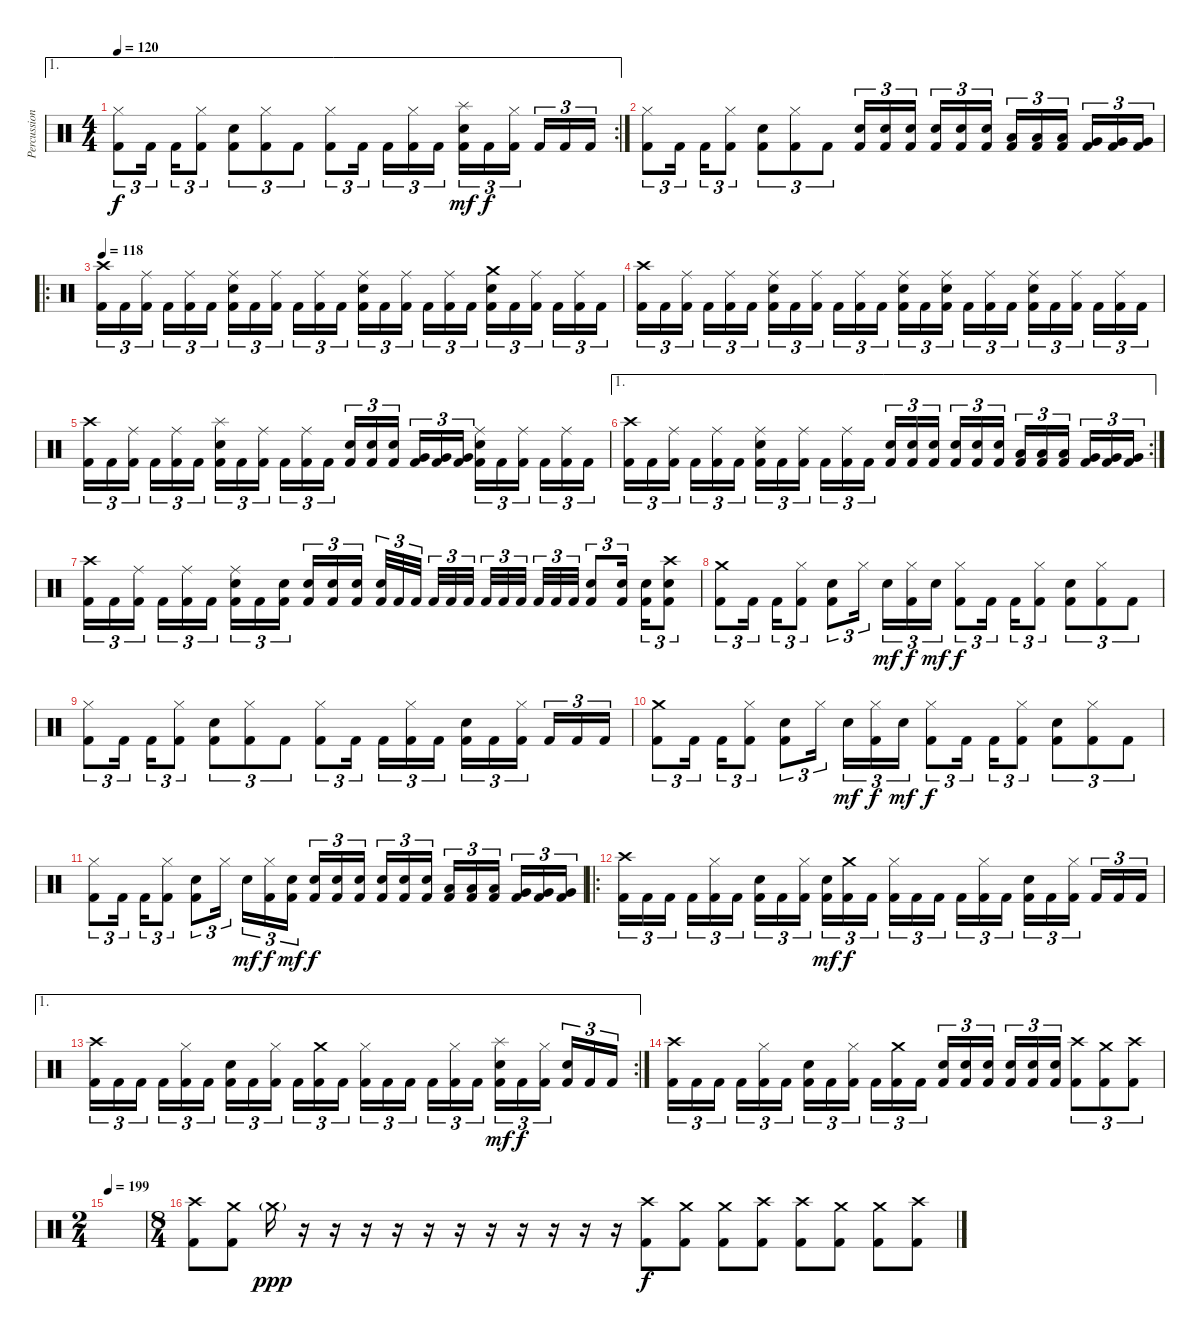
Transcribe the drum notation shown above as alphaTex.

\track ("Percussion" "Percussion") {instrument percussion}
\staff {score}
\articulation defaults
\ae 1
\rc 2
\ts (4 4)
\tempo 120
\clef neutral
\ks c
("Hi-Hat (closed)" "Kick (hit) 2").8{tu (3 2) dy f} "Kick (hit) 2".16{tu (3 2)} "Kick (hit) 2".16{tu (3 2)} ("Hi-Hat (closed)" "Kick (hit) 2").8{tu (3 2)} ("Snare (hit) 2" "Kick (hit) 2").8{tu (3 2)} ("Hi-Hat (closed)" "Kick (hit) 2").8{tu (3 2)} "Kick (hit) 2".8{tu (3 2)} ("Hi-Hat (closed)" "Kick (hit) 2").8{tu (3 2)} "Kick (hit) 2".16{tu (3 2)} "Kick (hit) 2".16{tu (3 2)} ("Hi-Hat (closed)" "Kick (hit) 2").16{tu (3 2)} "Kick (hit) 2".16{tu (3 2)} ("Splash (hit)" "Snare (hit) 2" "Kick (hit) 2").16{tu (3 2) dy mf} "Kick (hit) 2".16{tu (3 2) dy f} ("Hi-Hat (closed)" "Kick (hit) 2").16{tu (3 2)} "Kick (hit) 2".16{tu (3 2)} "Kick (hit) 2".16{tu (3 2)} "Kick (hit) 2".16{tu (3 2)} |
("Hi-Hat (closed)" "Kick (hit) 2").8{tu (3 2)} "Kick (hit) 2".16{tu (3 2)} "Kick (hit) 2".16{tu (3 2)} ("Hi-Hat (closed)" "Kick (hit) 2").8{tu (3 2)} ("Snare (hit) 2" "Kick (hit) 2").8{tu (3 2)} ("Hi-Hat (closed)" "Kick (hit) 2").8{tu (3 2)} "Kick (hit) 2".8{tu (3 2)} ("Snare (hit) 2" "Kick (hit) 2").16{tu (3 2)} ("Snare (hit) 2" "Kick (hit) 2").16{tu (3 2)} ("Snare (hit) 2" "Kick (hit) 2").16{tu (3 2)} ("Snare (hit) 2" "Kick (hit) 2").16{tu (3 2)} ("Snare (hit) 2" "Kick (hit) 2").16{tu (3 2)} ("Snare (hit) 2" "Kick (hit) 2").16{tu (3 2)} ("Low Tom (hit)" "Kick (hit) 2").16{tu (3 2)} ("Low Tom (hit)" "Kick (hit) 2").16{tu (3 2)} ("Low Tom (hit)" "Kick (hit) 2").16{tu (3 2)} ("Very Low Tom (hit)" "Kick (hit) 2").16{tu (3 2)} ("Very Low Tom (hit)" "Kick (hit) 2").16{tu (3 2)} ("Very Low Tom (hit)" "Kick (hit) 2").16{tu (3 2)} |
\ro
\tempo 118
("Crash high (hit)" "Kick (hit) 2").16{tu (3 2)} "Kick (hit) 2".16{tu (3 2)} ("Ride (middle)" "Kick (hit) 2").16{tu (3 2)} "Kick (hit) 2".16{tu (3 2)} ("Ride (middle)" "Kick (hit) 2").16{tu (3 2)} "Kick (hit) 2".16{tu (3 2)} ("Ride (middle)" "Snare (hit) 2" "Kick (hit) 2").16{tu (3 2)} "Kick (hit) 2".16{tu (3 2)} ("Ride (middle)" "Kick (hit) 2").16{tu (3 2)} "Kick (hit) 2".16{tu (3 2)} ("Ride (middle)" "Kick (hit) 2").16{tu (3 2)} "Kick (hit) 2".16{tu (3 2)} ("Ride (middle)" "Snare (hit) 2" "Kick (hit) 2").16{tu (3 2)} "Kick (hit) 2".16{tu (3 2)} ("Ride (middle)" "Kick (hit) 2").16{tu (3 2)} "Kick (hit) 2".16{tu (3 2)} ("Ride (middle)" "Kick (hit) 2").16{tu (3 2)} "Kick (hit) 2".16{tu (3 2)} ("Crash medium (hit)" "Snare (hit) 2" "Kick (hit) 2").16{tu (3 2)} "Kick (hit) 2".16{tu (3 2)} ("Ride (middle)" "Kick (hit) 2").16{tu (3 2)} "Kick (hit) 2".16{tu (3 2)} ("Ride (middle)" "Kick (hit) 2").16{tu (3 2)} "Kick (hit) 2".16{tu (3 2)} |
("Crash high (hit)" "Kick (hit) 2").16{tu (3 2)} "Kick (hit) 2".16{tu (3 2)} ("Ride (middle)" "Kick (hit) 2").16{tu (3 2)} "Kick (hit) 2".16{tu (3 2)} ("Ride (middle)" "Kick (hit) 2").16{tu (3 2)} "Kick (hit) 2".16{tu (3 2)} ("Ride (middle)" "Snare (hit) 2" "Kick (hit) 2").16{tu (3 2)} "Kick (hit) 2".16{tu (3 2)} ("Ride (middle)" "Kick (hit) 2").16{tu (3 2)} "Kick (hit) 2".16{tu (3 2)} ("Ride (middle)" "Kick (hit) 2").16{tu (3 2)} "Kick (hit) 2".16{tu (3 2)} ("Ride (middle)" "Snare (hit) 2" "Kick (hit) 2").16{tu (3 2)} "Kick (hit) 2".16{tu (3 2)} ("Ride (middle)" "Snare (hit) 2" "Kick (hit) 2").16{tu (3 2)} "Kick (hit) 2".16{tu (3 2)} ("Ride (middle)" "Kick (hit) 2").16{tu (3 2)} "Kick (hit) 2".16{tu (3 2)} ("Ride (middle)" "Snare (hit) 2" "Kick (hit) 2").16{tu (3 2)} "Kick (hit) 2".16{tu (3 2)} ("Ride (middle)" "Kick (hit) 2").16{tu (3 2)} "Kick (hit) 2".16{tu (3 2)} ("Ride (middle)" "Kick (hit) 2").16{tu (3 2)} "Kick (hit) 2".16{tu (3 2)} |
("Crash high (hit)" "Kick (hit) 2").16{tu (3 2)} "Kick (hit) 2".16{tu (3 2)} ("Ride (middle)" "Kick (hit) 2").16{tu (3 2)} "Kick (hit) 2".16{tu (3 2)} ("Ride (middle)" "Kick (hit) 2").16{tu (3 2)} "Kick (hit) 2".16{tu (3 2)} ("Splash (hit)" "Snare (hit) 2" "Kick (hit) 2").16{tu (3 2)} "Kick (hit) 2".16{tu (3 2)} ("Ride (middle)" "Kick (hit) 2").16{tu (3 2)} "Kick (hit) 2".16{tu (3 2)} ("Ride (middle)" "Kick (hit) 2").16{tu (3 2)} "Kick (hit) 2".16{tu (3 2)} ("Snare (hit) 2" "Kick (hit) 2").16{tu (3 2)} ("Snare (hit) 2" "Kick (hit) 2").16{tu (3 2)} ("Snare (hit) 2" "Kick (hit) 2").16{tu (3 2)} ("Very Low Tom (hit)" "Kick (hit) 2").16{tu (3 2)} ("Very Low Tom (hit)" "Kick (hit) 2").16{tu (3 2)} ("Very Low Tom (hit)" "Kick (hit) 2").16{tu (3 2)} ("Ride (middle)" "Snare (hit) 2" "Kick (hit) 2").16{tu (3 2)} "Kick (hit) 2".16{tu (3 2)} ("Ride (middle)" "Kick (hit) 2").16{tu (3 2)} "Kick (hit) 2".16{tu (3 2)} ("Ride (middle)" "Kick (hit) 2").16{tu (3 2)} "Kick (hit) 2".16{tu (3 2)} |
\ae 1
\rc 2
("Crash high (hit)" "Kick (hit) 2").16{tu (3 2)} "Kick (hit) 2".16{tu (3 2)} ("Ride (middle)" "Kick (hit) 2").16{tu (3 2)} "Kick (hit) 2".16{tu (3 2)} ("Ride (middle)" "Kick (hit) 2").16{tu (3 2)} "Kick (hit) 2".16{tu (3 2)} ("Ride (middle)" "Snare (hit) 2" "Kick (hit) 2").16{tu (3 2)} "Kick (hit) 2".16{tu (3 2)} ("Ride (middle)" "Kick (hit) 2").16{tu (3 2)} "Kick (hit) 2".16{tu (3 2)} ("Ride (middle)" "Kick (hit) 2").16{tu (3 2)} "Kick (hit) 2".16{tu (3 2)} ("Snare (hit) 2" "Kick (hit) 2").16{tu (3 2)} ("Snare (hit) 2" "Kick (hit) 2").16{tu (3 2)} ("Snare (hit) 2" "Kick (hit) 2").16{tu (3 2)} ("Snare (hit) 2" "Kick (hit) 2").16{tu (3 2)} ("Snare (hit) 2" "Kick (hit) 2").16{tu (3 2)} ("Snare (hit) 2" "Kick (hit) 2").16{tu (3 2)} ("Low Tom (hit)" "Kick (hit) 2").16{tu (3 2)} ("Low Tom (hit)" "Kick (hit) 2").16{tu (3 2)} ("Low Tom (hit)" "Kick (hit) 2").16{tu (3 2)} ("Very Low Tom (hit)" "Kick (hit) 2").16{tu (3 2)} ("Very Low Tom (hit)" "Kick (hit) 2").16{tu (3 2)} ("Very Low Tom (hit)" "Kick (hit) 2").16{tu (3 2)} |
("Crash high (hit)" "Kick (hit) 2").16{tu (3 2)} "Kick (hit) 2".16{tu (3 2)} ("Ride (middle)" "Kick (hit) 2").16{tu (3 2)} "Kick (hit) 2".16{tu (3 2)} ("Ride (middle)" "Kick (hit) 2").16{tu (3 2)} "Kick (hit) 2".16{tu (3 2)} ("Ride (middle)" "Snare (hit) 2" "Kick (hit) 2").16{tu (3 2)} "Kick (hit) 2".16{tu (3 2)} ("Snare (hit) 2" "Kick (hit) 2").16{tu (3 2)} ("Snare (hit) 2" "Kick (hit) 2").16{tu (3 2)} ("Snare (hit) 2" "Kick (hit) 2").16{tu (3 2)} ("Snare (hit) 2" "Kick (hit) 2").16{tu (3 2)} ("Snare (hit) 2" "Kick (hit) 2").32{tu (3 2)} "Kick (hit) 2".32{tu (3 2)} "Kick (hit) 2".32{tu (3 2)} "Kick (hit) 2".32{tu (3 2)} "Kick (hit) 2".32{tu (3 2)} "Kick (hit) 2".32{tu (3 2)} "Kick (hit) 2".32{tu (3 2)} "Kick (hit) 2".32{tu (3 2)} "Kick (hit) 2".32{tu (3 2)} "Kick (hit) 2".32{tu (3 2)} "Kick (hit) 2".32{tu (3 2)} "Kick (hit) 2".32{tu (3 2)} ("Snare (hit) 2" "Kick (hit) 2").8{tu (3 2)} ("Snare (hit) 2" "Kick (hit) 2").16{tu (3 2)} ("Snare (hit) 2" "Kick (hit) 2").16{tu (3 2)} ("Crash high (hit)" "Snare (hit) 2" "Kick (hit) 2").8{tu (3 2)} |
("Crash medium (hit)" "Kick (hit) 2").8{tu (3 2)} "Kick (hit) 2".16{tu (3 2)} "Kick (hit) 2".16{tu (3 2)} ("Hi-Hat (closed)" "Kick (hit) 2").8{tu (3 2)} ("Snare (hit) 2" "Kick (hit) 2").8{tu (3 2)} "Hi-Hat (closed)".16{tu (3 2)} "Snare (hit) 2".16{tu (3 2) dy mf} ("Hi-Hat (closed)" "Kick (hit) 2").16{tu (3 2) dy f} "Snare (hit) 2".16{tu (3 2) dy mf} ("Hi-Hat (closed)" "Kick (hit) 2").8{tu (3 2) dy f} "Kick (hit) 2".16{tu (3 2)} "Kick (hit) 2".16{tu (3 2)} ("Hi-Hat (closed)" "Kick (hit) 2").8{tu (3 2)} ("Snare (hit) 2" "Kick (hit) 2").8{tu (3 2)} ("Hi-Hat (closed)" "Kick (hit) 2").8{tu (3 2)} "Kick (hit) 2".8{tu (3 2)} |
("Hi-Hat (closed)" "Kick (hit) 2").8{tu (3 2)} "Kick (hit) 2".16{tu (3 2)} "Kick (hit) 2".16{tu (3 2)} ("Hi-Hat (closed)" "Kick (hit) 2").8{tu (3 2)} ("Snare (hit) 2" "Kick (hit) 2").8{tu (3 2)} ("Hi-Hat (closed)" "Kick (hit) 2").8{tu (3 2)} "Kick (hit) 2".8{tu (3 2)} ("Hi-Hat (closed)" "Kick (hit) 2").8{tu (3 2)} "Kick (hit) 2".16{tu (3 2)} "Kick (hit) 2".16{tu (3 2)} ("Hi-Hat (closed)" "Kick (hit) 2").16{tu (3 2)} "Kick (hit) 2".16{tu (3 2)} ("Snare (hit) 2" "Kick (hit) 2").16{tu (3 2)} "Kick (hit) 2".16{tu (3 2)} ("Hi-Hat (closed)" "Kick (hit) 2").16{tu (3 2)} "Kick (hit) 2".16{tu (3 2)} "Kick (hit) 2".16{tu (3 2)} "Kick (hit) 2".16{tu (3 2)} |
("Crash medium (hit)" "Kick (hit) 2").8{tu (3 2)} "Kick (hit) 2".16{tu (3 2)} "Kick (hit) 2".16{tu (3 2)} ("Hi-Hat (closed)" "Kick (hit) 2").8{tu (3 2)} ("Snare (hit) 2" "Kick (hit) 2").8{tu (3 2)} "Hi-Hat (closed)".16{tu (3 2)} "Snare (hit) 2".16{tu (3 2) dy mf} ("Hi-Hat (closed)" "Kick (hit) 2").16{tu (3 2) dy f} "Snare (hit) 2".16{tu (3 2) dy mf} ("Hi-Hat (closed)" "Kick (hit) 2").8{tu (3 2) dy f} "Kick (hit) 2".16{tu (3 2)} "Kick (hit) 2".16{tu (3 2)} ("Hi-Hat (closed)" "Kick (hit) 2").8{tu (3 2)} ("Snare (hit) 2" "Kick (hit) 2").8{tu (3 2)} ("Hi-Hat (closed)" "Kick (hit) 2").8{tu (3 2)} "Kick (hit) 2".8{tu (3 2)} |
("Hi-Hat (closed)" "Kick (hit) 2").8{tu (3 2)} "Kick (hit) 2".16{tu (3 2)} "Kick (hit) 2".16{tu (3 2)} ("Hi-Hat (closed)" "Kick (hit) 2").8{tu (3 2)} ("Snare (hit) 2" "Kick (hit) 2").8{tu (3 2)} "Hi-Hat (closed)".16{tu (3 2)} "Snare (hit) 2".16{tu (3 2) dy mf} ("Hi-Hat (closed)" "Kick (hit) 2").16{tu (3 2) dy f} ("Snare (hit) 2" "Kick (hit) 2").16{tu (3 2) dy mf} ("Snare (hit) 2" "Kick (hit) 2").16{tu (3 2) dy f} ("Snare (hit) 2" "Kick (hit) 2").16{tu (3 2)} ("Snare (hit) 2" "Kick (hit) 2").16{tu (3 2)} ("Snare (hit) 2" "Kick (hit) 2").16{tu (3 2)} ("Snare (hit) 2" "Kick (hit) 2").16{tu (3 2)} ("Snare (hit) 2" "Kick (hit) 2").16{tu (3 2)} ("Low Tom (hit)" "Kick (hit) 2").16{tu (3 2)} ("Low Tom (hit)" "Kick (hit) 2").16{tu (3 2)} ("Low Tom (hit)" "Kick (hit) 2").16{tu (3 2)} ("Very Low Tom (hit)" "Kick (hit) 2").16{tu (3 2)} ("Very Low Tom (hit)" "Kick (hit) 2").16{tu (3 2)} ("Very Low Tom (hit)" "Kick (hit) 2").16{tu (3 2)} |
\ro
("Crash high (hit)" "Kick (hit) 2").16{tu (3 2)} "Kick (hit) 2".16{tu (3 2)} "Kick (hit) 2".16{tu (3 2)} "Kick (hit) 2".16{tu (3 2)} ("Hi-Hat (closed)" "Kick (hit) 2").16{tu (3 2)} "Kick (hit) 2".16{tu (3 2)} ("Snare (hit) 2" "Kick (hit) 2").16{tu (3 2)} "Kick (hit) 2".16{tu (3 2)} ("Hi-Hat (closed)" "Kick (hit) 2").16{tu (3 2)} ("Snare (hit) 2" "Kick (hit) 2").16{tu (3 2) dy mf} ("Crash medium (hit)" "Kick (hit) 2").16{tu (3 2) dy f} "Kick (hit) 2".16{tu (3 2)} ("Hi-Hat (closed)" "Kick (hit) 2").16{tu (3 2)} "Kick (hit) 2".16{tu (3 2)} "Kick (hit) 2".16{tu (3 2)} "Kick (hit) 2".16{tu (3 2)} ("Hi-Hat (closed)" "Kick (hit) 2").16{tu (3 2)} "Kick (hit) 2".16{tu (3 2)} ("Snare (hit) 2" "Kick (hit) 2").16{tu (3 2)} "Kick (hit) 2".16{tu (3 2)} ("Hi-Hat (closed)" "Kick (hit) 2").16{tu (3 2)} "Kick (hit) 2".16{tu (3 2)} "Kick (hit) 2".16{tu (3 2)} "Kick (hit) 2".16{tu (3 2)} |
\ae 1
\rc 2
("Crash high (hit)" "Kick (hit) 2").16{tu (3 2)} "Kick (hit) 2".16{tu (3 2)} "Kick (hit) 2".16{tu (3 2)} "Kick (hit) 2".16{tu (3 2)} ("Hi-Hat (closed)" "Kick (hit) 2").16{tu (3 2)} "Kick (hit) 2".16{tu (3 2)} ("Snare (hit) 2" "Kick (hit) 2").16{tu (3 2)} "Kick (hit) 2".16{tu (3 2)} ("Hi-Hat (closed)" "Kick (hit) 2").16{tu (3 2)} "Kick (hit) 2".16{tu (3 2)} ("Crash medium (hit)" "Kick (hit) 2").16{tu (3 2)} "Kick (hit) 2".16{tu (3 2)} ("Hi-Hat (closed)" "Kick (hit) 2").16{tu (3 2)} "Kick (hit) 2".16{tu (3 2)} "Kick (hit) 2".16{tu (3 2)} "Kick (hit) 2".16{tu (3 2)} ("Hi-Hat (closed)" "Kick (hit) 2").16{tu (3 2)} "Kick (hit) 2".16{tu (3 2)} ("Splash (hit)" "Snare (hit) 2" "Kick (hit) 2").16{tu (3 2) dy mf} "Kick (hit) 2".16{tu (3 2) dy f} ("Hi-Hat (closed)" "Kick (hit) 2").16{tu (3 2)} ("Snare (hit) 2" "Kick (hit) 2").16{tu (3 2)} "Kick (hit) 2".16{tu (3 2)} "Kick (hit) 2".16{tu (3 2)} |
("Crash high (hit)" "Kick (hit) 2").16{tu (3 2)} "Kick (hit) 2".16{tu (3 2)} "Kick (hit) 2".16{tu (3 2)} "Kick (hit) 2".16{tu (3 2)} ("Hi-Hat (closed)" "Kick (hit) 2").16{tu (3 2)} "Kick (hit) 2".16{tu (3 2)} ("Snare (hit) 2" "Kick (hit) 2").16{tu (3 2)} "Kick (hit) 2".16{tu (3 2)} ("Hi-Hat (closed)" "Kick (hit) 2").16{tu (3 2)} "Kick (hit) 2".16{tu (3 2)} ("Crash medium (hit)" "Kick (hit) 2").16{tu (3 2)} "Kick (hit) 2".16{tu (3 2)} ("Snare (hit) 2" "Kick (hit) 2").16{tu (3 2)} ("Snare (hit) 2" "Kick (hit) 2").16{tu (3 2)} ("Snare (hit) 2" "Kick (hit) 2").16{tu (3 2)} ("Snare (hit) 2" "Kick (hit) 2").16{tu (3 2)} ("Snare (hit) 2" "Kick (hit) 2").16{tu (3 2)} ("Snare (hit) 2" "Kick (hit) 2").16{tu (3 2)} ("Crash high (hit)" "Kick (hit) 2").8{tu (3 2)} ("Crash medium (hit)" "Kick (hit) 2").8{tu (3 2)} ("Crash high (hit)" "Kick (hit) 2").8{tu (3 2)} |
\ts (2 4)
\tempo 199
|
\ts (8 4)
("Crash high (hit)" "Kick (hit) 2").8 ("Crash medium (hit)" "Kick (hit) 2").8 "Crash medium (hit)"{g}.16{dy ppp} r.16 r.16 r.16 r.16 r.16 r.16 r.16 r.16 r.16 r.16 r.16 ("Crash high (hit)" "Kick (hit) 2").8{dy f} ("Crash medium (hit)" "Kick (hit) 2").8 ("Crash medium (hit)" "Kick (hit) 2").8 ("Crash high (hit)" "Kick (hit) 2").8 ("Crash high (hit)" "Kick (hit) 2").8 ("Crash medium (hit)" "Kick (hit) 2").8 ("Crash medium (hit)" "Kick (hit) 2").8 ("Crash high (hit)" "Kick (hit) 2").8
